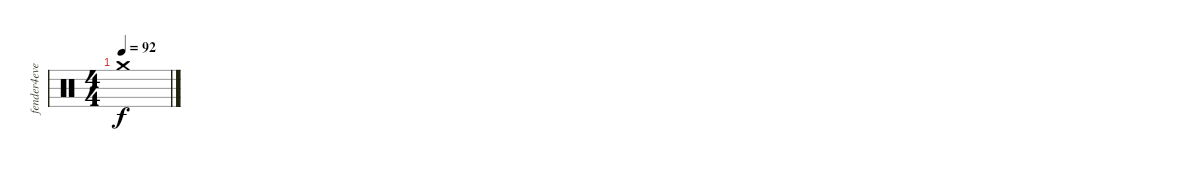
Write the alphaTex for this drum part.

\track ("fender4ever@hotmail.com" "fender4eve") {instrument percussion}
\staff {score}
\articulation defaults
\ts (4 4)
\tempo 92
\clef neutral
\ks c "Crash medium (hit)".1{dy f}
